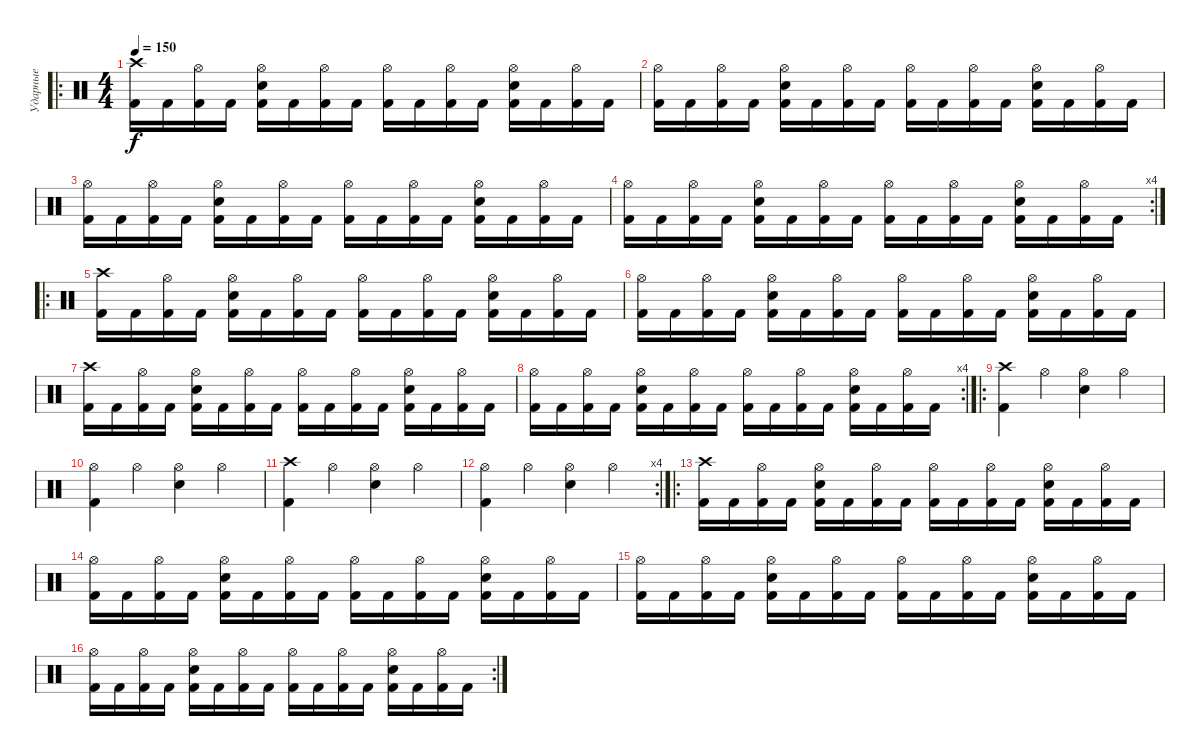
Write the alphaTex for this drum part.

\track ("Ударные" "Ударные") {instrument percussion}
\staff {score}
\articulation defaults
\ro
\ts (4 4)
\tempo 150
\clef neutral
\ks c
("Kick (hit) 2" "Crash high (hit)").16{dy f} "Kick (hit) 2".16 ("Kick (hit) 2" "Hi-Hat (open)").16 "Kick (hit) 2".16 ("Kick (hit) 2" "Electric Snare (hit)" "Hi-Hat (open)").16 "Kick (hit) 2".16 ("Kick (hit) 2" "Hi-Hat (open)").16 "Kick (hit) 2".16 ("Kick (hit) 2" "Hi-Hat (open)").16 "Kick (hit) 2".16 ("Kick (hit) 2" "Hi-Hat (open)").16 "Kick (hit) 2".16 ("Kick (hit) 2" "Electric Snare (hit)" "Hi-Hat (open)").16 "Kick (hit) 2".16 ("Kick (hit) 2" "Hi-Hat (open)").16 "Kick (hit) 2".16 |
("Kick (hit) 2" "Hi-Hat (open)").16 "Kick (hit) 2".16 ("Kick (hit) 2" "Hi-Hat (open)").16 "Kick (hit) 2".16 ("Kick (hit) 2" "Electric Snare (hit)" "Hi-Hat (open)").16 "Kick (hit) 2".16 ("Kick (hit) 2" "Hi-Hat (open)").16 "Kick (hit) 2".16 ("Kick (hit) 2" "Hi-Hat (open)").16 "Kick (hit) 2".16 ("Kick (hit) 2" "Hi-Hat (open)").16 "Kick (hit) 2".16 ("Kick (hit) 2" "Electric Snare (hit)" "Hi-Hat (open)").16 "Kick (hit) 2".16 ("Kick (hit) 2" "Hi-Hat (open)").16 "Kick (hit) 2".16 |
("Kick (hit) 2" "Hi-Hat (open)").16 "Kick (hit) 2".16 ("Kick (hit) 2" "Hi-Hat (open)").16 "Kick (hit) 2".16 ("Kick (hit) 2" "Electric Snare (hit)" "Hi-Hat (open)").16 "Kick (hit) 2".16 ("Kick (hit) 2" "Hi-Hat (open)").16 "Kick (hit) 2".16 ("Kick (hit) 2" "Hi-Hat (open)").16 "Kick (hit) 2".16 ("Kick (hit) 2" "Hi-Hat (open)").16 "Kick (hit) 2".16 ("Kick (hit) 2" "Electric Snare (hit)" "Hi-Hat (open)").16 "Kick (hit) 2".16 ("Kick (hit) 2" "Hi-Hat (open)").16 "Kick (hit) 2".16 |
\rc 4
("Kick (hit) 2" "Hi-Hat (open)").16 "Kick (hit) 2".16 ("Kick (hit) 2" "Hi-Hat (open)").16 "Kick (hit) 2".16 ("Kick (hit) 2" "Electric Snare (hit)" "Hi-Hat (open)").16 "Kick (hit) 2".16 ("Kick (hit) 2" "Hi-Hat (open)").16 "Kick (hit) 2".16 ("Kick (hit) 2" "Hi-Hat (open)").16 "Kick (hit) 2".16 ("Kick (hit) 2" "Hi-Hat (open)").16 "Kick (hit) 2".16 ("Kick (hit) 2" "Electric Snare (hit)" "Hi-Hat (open)").16 "Kick (hit) 2".16 ("Kick (hit) 2" "Hi-Hat (open)").16 "Kick (hit) 2".16 |
\ro
("Kick (hit) 2" "Crash high (hit)").16 "Kick (hit) 2".16 ("Kick (hit) 2" "Hi-Hat (open)").16 "Kick (hit) 2".16 ("Kick (hit) 2" "Electric Snare (hit)" "Hi-Hat (open)").16 "Kick (hit) 2".16 ("Kick (hit) 2" "Hi-Hat (open)").16 "Kick (hit) 2".16 ("Kick (hit) 2" "Hi-Hat (open)").16 "Kick (hit) 2".16 ("Kick (hit) 2" "Hi-Hat (open)").16 "Kick (hit) 2".16 ("Kick (hit) 2" "Electric Snare (hit)" "Hi-Hat (open)").16 "Kick (hit) 2".16 ("Kick (hit) 2" "Hi-Hat (open)").16 "Kick (hit) 2".16 |
("Kick (hit) 2" "Hi-Hat (open)").16 "Kick (hit) 2".16 ("Kick (hit) 2" "Hi-Hat (open)").16 "Kick (hit) 2".16 ("Kick (hit) 2" "Electric Snare (hit)" "Hi-Hat (open)").16 "Kick (hit) 2".16 ("Kick (hit) 2" "Hi-Hat (open)").16 "Kick (hit) 2".16 ("Kick (hit) 2" "Hi-Hat (open)").16 "Kick (hit) 2".16 ("Kick (hit) 2" "Hi-Hat (open)").16 "Kick (hit) 2".16 ("Kick (hit) 2" "Electric Snare (hit)" "Hi-Hat (open)").16 "Kick (hit) 2".16 ("Kick (hit) 2" "Hi-Hat (open)").16 "Kick (hit) 2".16 |
("Kick (hit) 2" "Crash high (hit)").16 "Kick (hit) 2".16 ("Kick (hit) 2" "Hi-Hat (open)").16 "Kick (hit) 2".16 ("Kick (hit) 2" "Electric Snare (hit)" "Hi-Hat (open)").16 "Kick (hit) 2".16 ("Kick (hit) 2" "Hi-Hat (open)").16 "Kick (hit) 2".16 ("Kick (hit) 2" "Hi-Hat (open)").16 "Kick (hit) 2".16 ("Kick (hit) 2" "Hi-Hat (open)").16 "Kick (hit) 2".16 ("Kick (hit) 2" "Electric Snare (hit)" "Hi-Hat (open)").16 "Kick (hit) 2".16 ("Kick (hit) 2" "Hi-Hat (open)").16 "Kick (hit) 2".16 |
\rc 4
("Kick (hit) 2" "Hi-Hat (open)").16 "Kick (hit) 2".16 ("Kick (hit) 2" "Hi-Hat (open)").16 "Kick (hit) 2".16 ("Kick (hit) 2" "Electric Snare (hit)" "Hi-Hat (open)").16 "Kick (hit) 2".16 ("Kick (hit) 2" "Hi-Hat (open)").16 "Kick (hit) 2".16 ("Kick (hit) 2" "Hi-Hat (open)").16 "Kick (hit) 2".16 ("Kick (hit) 2" "Hi-Hat (open)").16 "Kick (hit) 2".16 ("Kick (hit) 2" "Electric Snare (hit)" "Hi-Hat (open)").16 "Kick (hit) 2".16 ("Kick (hit) 2" "Hi-Hat (open)").16 "Kick (hit) 2".16 |
\ro
("Kick (hit) 2" "Crash high (hit)").4 "Hi-Hat (open)".4 ("Electric Snare (hit)" "Hi-Hat (open)").4 "Hi-Hat (open)".4 |
("Kick (hit) 2" "Hi-Hat (open)").4 "Hi-Hat (open)".4 ("Electric Snare (hit)" "Hi-Hat (open)").4 "Hi-Hat (open)".4 |
("Kick (hit) 2" "Crash high (hit)").4 "Hi-Hat (open)".4 ("Electric Snare (hit)" "Hi-Hat (open)").4 "Hi-Hat (open)".4 |
\rc 4
("Kick (hit) 2" "Hi-Hat (open)").4 "Hi-Hat (open)".4 ("Electric Snare (hit)" "Hi-Hat (open)").4 "Hi-Hat (open)".4 |
\ro
("Kick (hit) 2" "Crash high (hit)").16 "Kick (hit) 2".16 ("Kick (hit) 2" "Hi-Hat (open)").16 "Kick (hit) 2".16 ("Kick (hit) 2" "Electric Snare (hit)" "Hi-Hat (open)").16 "Kick (hit) 2".16 ("Kick (hit) 2" "Hi-Hat (open)").16 "Kick (hit) 2".16 ("Kick (hit) 2" "Hi-Hat (open)").16 "Kick (hit) 2".16 ("Kick (hit) 2" "Hi-Hat (open)").16 "Kick (hit) 2".16 ("Kick (hit) 2" "Electric Snare (hit)" "Hi-Hat (open)").16 "Kick (hit) 2".16 ("Kick (hit) 2" "Hi-Hat (open)").16 "Kick (hit) 2".16 |
("Kick (hit) 2" "Hi-Hat (open)").16 "Kick (hit) 2".16 ("Kick (hit) 2" "Hi-Hat (open)").16 "Kick (hit) 2".16 ("Kick (hit) 2" "Electric Snare (hit)" "Hi-Hat (open)").16 "Kick (hit) 2".16 ("Kick (hit) 2" "Hi-Hat (open)").16 "Kick (hit) 2".16 ("Kick (hit) 2" "Hi-Hat (open)").16 "Kick (hit) 2".16 ("Kick (hit) 2" "Hi-Hat (open)").16 "Kick (hit) 2".16 ("Kick (hit) 2" "Electric Snare (hit)" "Hi-Hat (open)").16 "Kick (hit) 2".16 ("Kick (hit) 2" "Hi-Hat (open)").16 "Kick (hit) 2".16 |
("Kick (hit) 2" "Hi-Hat (open)").16 "Kick (hit) 2".16 ("Kick (hit) 2" "Hi-Hat (open)").16 "Kick (hit) 2".16 ("Kick (hit) 2" "Electric Snare (hit)" "Hi-Hat (open)").16 "Kick (hit) 2".16 ("Kick (hit) 2" "Hi-Hat (open)").16 "Kick (hit) 2".16 ("Kick (hit) 2" "Hi-Hat (open)").16 "Kick (hit) 2".16 ("Kick (hit) 2" "Hi-Hat (open)").16 "Kick (hit) 2".16 ("Kick (hit) 2" "Electric Snare (hit)" "Hi-Hat (open)").16 "Kick (hit) 2".16 ("Kick (hit) 2" "Hi-Hat (open)").16 "Kick (hit) 2".16 |
\rc 2
("Kick (hit) 2" "Hi-Hat (open)").16 "Kick (hit) 2".16 ("Kick (hit) 2" "Hi-Hat (open)").16 "Kick (hit) 2".16 ("Kick (hit) 2" "Electric Snare (hit)" "Hi-Hat (open)").16 "Kick (hit) 2".16 ("Kick (hit) 2" "Hi-Hat (open)").16 "Kick (hit) 2".16 ("Kick (hit) 2" "Hi-Hat (open)").16 "Kick (hit) 2".16 ("Kick (hit) 2" "Hi-Hat (open)").16 "Kick (hit) 2".16 ("Kick (hit) 2" "Electric Snare (hit)" "Hi-Hat (open)").16 "Kick (hit) 2".16 ("Kick (hit) 2" "Hi-Hat (open)").16 "Kick (hit) 2".16
